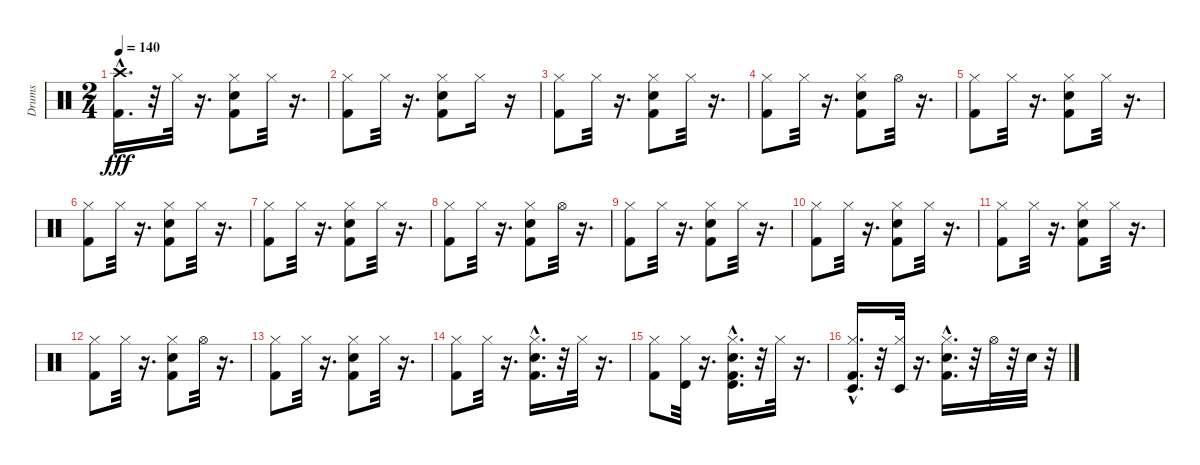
\track ("Drums" "Drums") {instrument percussion}
\staff {score}
\articulation defaults
\ts (2 4)
\tempo 140
\clef neutral
\ks c
("Kick (hit) 2"{hac} "Crash high (hit)").16{d dy fff} r.32 "Hi-Hat (closed)".32 r.16{d} ("Kick (hit) 2" "Snare (hit) 2" "Hi-Hat (closed)").8 "Hi-Hat (closed)".32 r.16{d} |
("Kick (hit) 2" "Hi-Hat (closed)").8 "Hi-Hat (closed)".32 r.16{d} ("Snare (hit) 2" "Kick (hit) 2" "Hi-Hat (closed)").8 "Hi-Hat (closed)".16 r.16 |
("Kick (hit) 2" "Hi-Hat (closed)").8 "Hi-Hat (closed)".32 r.16{d} ("Hi-Hat (closed)" "Snare (hit) 2" "Kick (hit) 2").8 "Hi-Hat (closed)".32 r.16{d} |
("Kick (hit) 2" "Hi-Hat (closed)").8 "Hi-Hat (closed)".32 r.16{d} ("Snare (hit) 2" "Hi-Hat (closed)" "Kick (hit) 2").8 "Hi-Hat (open)".32 r.16{d} |
("Kick (hit) 2" "Hi-Hat (closed)").8 "Hi-Hat (closed)".32 r.16{d} ("Kick (hit) 2" "Hi-Hat (closed)" "Snare (hit) 2").8 "Hi-Hat (closed)".32 r.16{d} |
("Kick (hit) 2" "Hi-Hat (closed)").8 "Hi-Hat (closed)".32 r.16{d} ("Kick (hit) 2" "Hi-Hat (closed)" "Snare (hit) 2").8 "Hi-Hat (closed)".32 r.16{d} |
("Kick (hit) 2" "Hi-Hat (closed)").8 "Hi-Hat (closed)".32 r.16{d} ("Snare (hit) 2" "Kick (hit) 2" "Hi-Hat (closed)").8 "Hi-Hat (closed)".32 r.16{d} |
("Kick (hit) 2" "Hi-Hat (closed)").8 "Hi-Hat (closed)".32 r.16{d} ("Snare (hit) 2" "Hi-Hat (closed)" "Kick (hit) 2").8 "Hi-Hat (open)".32 r.16{d} |
("Kick (hit) 2" "Hi-Hat (closed)").8 "Hi-Hat (closed)".32 r.16{d} ("Snare (hit) 2" "Kick (hit) 2" "Hi-Hat (closed)").8 "Hi-Hat (closed)".32 r.16{d} |
("Kick (hit) 2" "Hi-Hat (closed)").8 "Hi-Hat (closed)".32 r.16{d} ("Snare (hit) 2" "Kick (hit) 2" "Hi-Hat (closed)").8 "Hi-Hat (closed)".32 r.16{d} |
("Kick (hit) 2" "Hi-Hat (closed)").8 "Hi-Hat (closed)".32 r.16{d} ("Kick (hit) 2" "Hi-Hat (closed)" "Snare (hit) 2").8 "Hi-Hat (closed)".32 r.16{d} |
("Kick (hit) 2" "Hi-Hat (closed)").8 "Hi-Hat (closed)".32 r.16{d} ("Hi-Hat (closed)" "Snare (hit) 2" "Kick (hit) 2").8 "Hi-Hat (open)".32 r.16{d} |
("Kick (hit) 2" "Hi-Hat (closed)").8 "Hi-Hat (closed)".32 r.16{d} ("Kick (hit) 2" "Hi-Hat (closed)" "Snare (hit) 2").8 "Hi-Hat (closed)".32 r.16{d} |
("Kick (hit) 2" "Hi-Hat (closed)").8 "Hi-Hat (closed)".32 r.16{d} ("Hi-Hat (closed)" "Snare (hit) 2"{hac} "Kick (hit) 2"{hac}).16{d} r.32 "Hi-Hat (closed)".32 r.16{d} |
("Kick (hit) 2" "Hi-Hat (closed)").8 ("Timbale high (hit)" "Hi-Hat (closed)").32 r.16{d} ("Hi-Hat (closed)" "Kick (hit) 2"{hac} "Snare (hit) 2"{hac} "Timbale high (hit)").16{d} r.32 "Hi-Hat (closed)".32 r.16{d} |
("Kick (hit) 2"{hac} "Timbale low (hit)" "Hi-Hat (closed)").16{d} r.32 ("Timbale low (hit)" "Hi-Hat (closed)").32 r.16{d} ("Snare (hit) 2"{hac} "Kick (hit) 2"{hac} "Hi-Hat (closed)").16{d} r.32 "Hi-Hat (open)".32 r.32 "Snare (hit) 2".32 r.32
